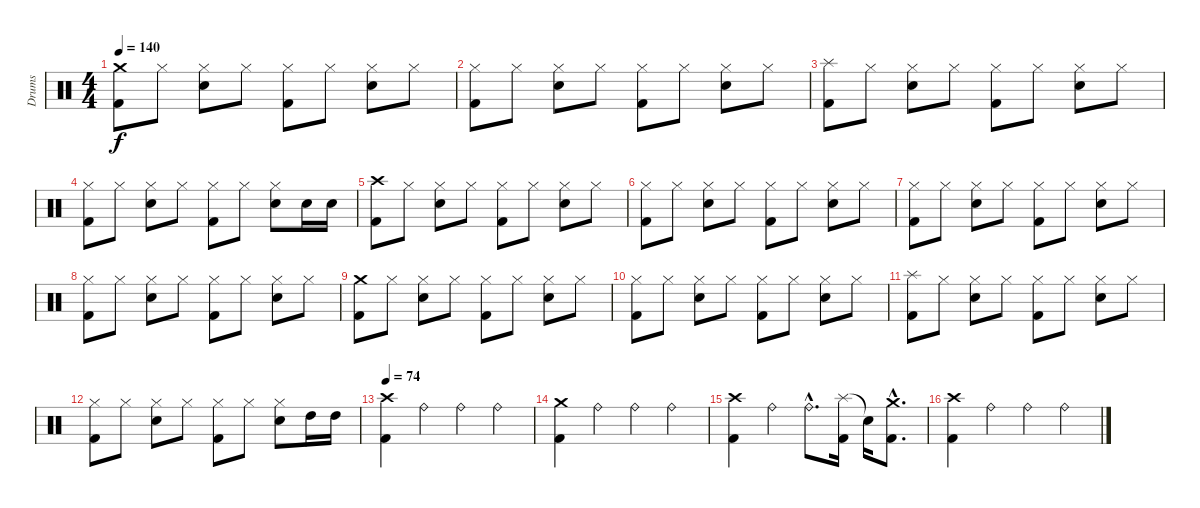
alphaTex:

\track ("Drums" "Drums") {instrument percussion}
\staff {score}
\articulation defaults
\ts (4 4)
\tempo 140
\clef neutral
\ks c
("Crash medium (hit)" "Kick (hit) 2").8{dy f} "Hi-Hat (closed)".8 ("Hi-Hat (closed)" "Electric Snare (hit)").8 "Hi-Hat (closed)".8 ("Hi-Hat (closed)" "Kick (hit) 2").8 "Hi-Hat (closed)".8 ("Hi-Hat (closed)" "Electric Snare (hit)").8 "Hi-Hat (closed)".8 |
("Hi-Hat (closed)" "Kick (hit) 2").8 "Hi-Hat (closed)".8 ("Hi-Hat (closed)" "Electric Snare (hit)").8 "Hi-Hat (closed)".8 ("Hi-Hat (closed)" "Kick (hit) 2").8 "Hi-Hat (closed)".8 ("Hi-Hat (closed)" "Electric Snare (hit)").8 "Hi-Hat (closed)".8 |
("Splash (hit)" "Kick (hit) 2").8 "Hi-Hat (closed)".8 ("Hi-Hat (closed)" "Electric Snare (hit)").8 "Hi-Hat (closed)".8 ("Hi-Hat (closed)" "Kick (hit) 2").8 "Hi-Hat (closed)".8 ("Hi-Hat (closed)" "Electric Snare (hit)").8 "Hi-Hat (closed)".8 |
("Hi-Hat (closed)" "Kick (hit) 2").8 "Hi-Hat (closed)".8 ("Hi-Hat (closed)" "Electric Snare (hit)").8 "Hi-Hat (closed)".8 ("Hi-Hat (closed)" "Kick (hit) 2").8 "Hi-Hat (closed)".8 ("Hi-Hat (closed)" "Electric Snare (hit)").8 "Electric Snare (hit)".16 "Electric Snare (hit)".16 |
("Crash high (hit)" "Kick (hit) 2").8 "Hi-Hat (closed)".8 ("Hi-Hat (closed)" "Electric Snare (hit)").8 "Hi-Hat (closed)".8 ("Hi-Hat (closed)" "Kick (hit) 2").8 "Hi-Hat (closed)".8 ("Hi-Hat (closed)" "Electric Snare (hit)").8 "Hi-Hat (closed)".8 |
("Hi-Hat (closed)" "Kick (hit) 2").8 "Hi-Hat (closed)".8 ("Hi-Hat (closed)" "Electric Snare (hit)").8 "Hi-Hat (closed)".8 ("Hi-Hat (closed)" "Kick (hit) 2").8 "Hi-Hat (closed)".8 ("Hi-Hat (closed)" "Electric Snare (hit)").8 "Hi-Hat (closed)".8 |
("Hi-Hat (closed)" "Kick (hit) 2").8 "Hi-Hat (closed)".8 ("Hi-Hat (closed)" "Electric Snare (hit)").8 "Hi-Hat (closed)".8 ("Hi-Hat (closed)" "Kick (hit) 2").8 "Hi-Hat (closed)".8 ("Hi-Hat (closed)" "Electric Snare (hit)").8 "Hi-Hat (closed)".8 |
("Hi-Hat (closed)" "Kick (hit) 2").8 "Hi-Hat (closed)".8 ("Hi-Hat (closed)" "Electric Snare (hit)").8 "Hi-Hat (closed)".8 ("Hi-Hat (closed)" "Kick (hit) 2").8 "Hi-Hat (closed)".8 ("Hi-Hat (closed)" "Electric Snare (hit)").8 "Hi-Hat (closed)".8 |
("Crash medium (hit)" "Kick (hit) 2").8 "Hi-Hat (closed)".8 ("Hi-Hat (closed)" "Electric Snare (hit)").8 "Hi-Hat (closed)".8 ("Hi-Hat (closed)" "Kick (hit) 2").8 "Hi-Hat (closed)".8 ("Hi-Hat (closed)" "Electric Snare (hit)").8 "Hi-Hat (closed)".8 |
("Hi-Hat (closed)" "Kick (hit) 2").8 "Hi-Hat (closed)".8 ("Hi-Hat (closed)" "Electric Snare (hit)").8 "Hi-Hat (closed)".8 ("Hi-Hat (closed)" "Kick (hit) 2").8 "Hi-Hat (closed)".8 ("Hi-Hat (closed)" "Electric Snare (hit)").8 "Hi-Hat (closed)".8 |
("Splash (hit)" "Kick (hit) 2").8 "Hi-Hat (closed)".8 ("Hi-Hat (closed)" "Electric Snare (hit)").8 "Hi-Hat (closed)".8 ("Hi-Hat (closed)" "Kick (hit) 2").8 "Hi-Hat (closed)".8 ("Hi-Hat (closed)" "Electric Snare (hit)").8 "Hi-Hat (closed)".8 |
("Hi-Hat (closed)" "Kick (hit) 2").8 "Hi-Hat (closed)".8 ("Hi-Hat (closed)" "Electric Snare (hit)").8 "Hi-Hat (closed)".8 ("Hi-Hat (closed)" "Kick (hit) 2").8 "Hi-Hat (closed)".8 ("Hi-Hat (closed)" "Electric Snare (hit)").8 "High Tom (hit)".16 "High Tom (hit)".16 |
\tempo 74
("Crash high (hit)" "Kick (hit) 2").4 "Ride (bell)".4 "Ride (bell)".4 "Ride (bell)".4 |
("Crash medium (hit)" "Kick (hit) 2").4 "Ride (bell)".4 "Ride (bell)".4 "Ride (bell)".4 |
("Crash high (hit)" "Kick (hit) 2").4 "Ride (bell)".4 "Ride (bell)"{hac}.8{d} ("Splash (hit)" "Kick (hit) 2").16 "Snare (hit)"{t}.16 ("Crash medium (hit)"{hac} "Kick (hit) 2"{hac}).8{d} |
("Crash high (hit)" "Kick (hit) 2").4 "Ride (bell)".4 "Ride (bell)".4 "Ride (bell)".4
